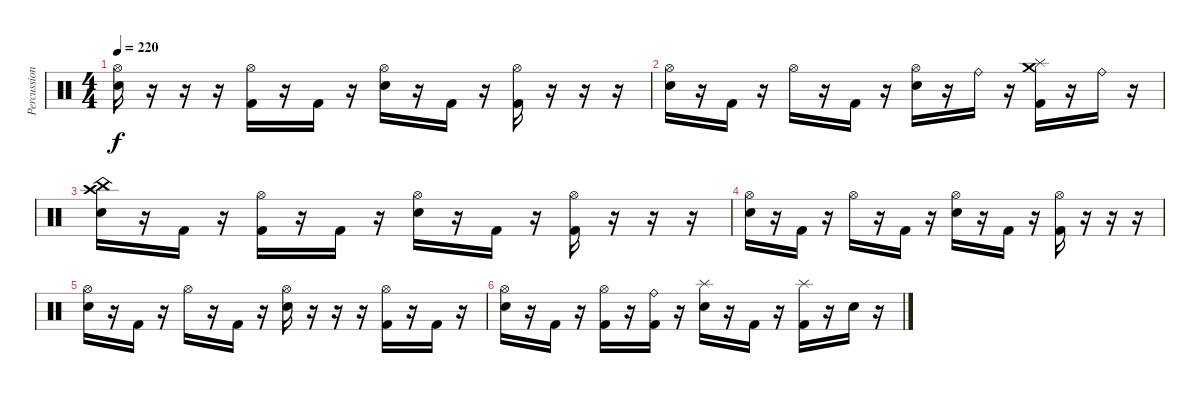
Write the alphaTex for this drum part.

\track ("Percussion" "Percussion") {instrument percussion}
\staff {score}
\articulation defaults
\ts (4 4)
\tempo 220
\clef neutral
\ks c
("Hi-Hat (open)" "Electric Snare (hit)").16{dy f} r.16 r.16 r.16 ("Hi-Hat (open)" "Kick (hit) 2").16 r.16 "Kick (hit) 2".16 r.16 ("Hi-Hat (open)" "Electric Snare (hit)").16 r.16 "Kick (hit) 2".16 r.16 ("Hi-Hat (open)" "Kick (hit) 2").16 r.16 r.16 r.16 |
("Hi-Hat (open)" "Electric Snare (hit)").16 r.16 "Kick (hit) 2".16 r.16 "Hi-Hat (open)".16 r.16 "Kick (hit) 2".16 r.16 ("Hi-Hat (open)" "Electric Snare (hit)").16 r.16 "Ride (bell)".16 r.16 ("Splash (hit)" "Crash medium (hit)" "Kick (hit) 2").16 r.16 "Ride (bell)".16 r.16 |
("Crash high (hit)" "China (hit)" "Electric Snare (hit)").16 r.16 "Kick (hit) 2".16 r.16 ("Hi-Hat (open)" "Kick (hit) 2").16 r.16 "Kick (hit) 2".16 r.16 ("Hi-Hat (open)" "Electric Snare (hit)").16 r.16 "Kick (hit) 2".16 r.16 ("Hi-Hat (open)" "Kick (hit) 2").16 r.16 r.16 r.16 |
("Hi-Hat (open)" "Electric Snare (hit)").16 r.16 "Kick (hit) 2".16 r.16 "Hi-Hat (open)".16 r.16 "Kick (hit) 2".16 r.16 ("Hi-Hat (open)" "Electric Snare (hit)").16 r.16 "Kick (hit) 2".16 r.16 ("Hi-Hat (open)" "Kick (hit) 2").16 r.16 r.16 r.16 |
("Hi-Hat (open)" "Electric Snare (hit)").16 r.16 "Kick (hit) 2".16 r.16 "Hi-Hat (open)".16 r.16 "Kick (hit) 2".16 r.16 ("Hi-Hat (open)" "Electric Snare (hit)").16 r.16 r.16 r.16 ("Hi-Hat (open)" "Kick (hit) 2").16 r.16 "Kick (hit) 2".16 r.16 |
("Hi-Hat (open)" "Electric Snare (hit)").16 r.16 "Kick (hit) 2".16 r.16 ("Hi-Hat (open)" "Kick (hit) 2").16 r.16 ("Ride (bell)" "Kick (hit) 2").16 r.16 ("Splash (hit)" "Electric Snare (hit)").16 r.16 "Kick (hit) 2".16 r.16 ("Splash (hit)" "Kick (hit) 2").16 r.16 "Electric Snare (hit)".16 r.16
